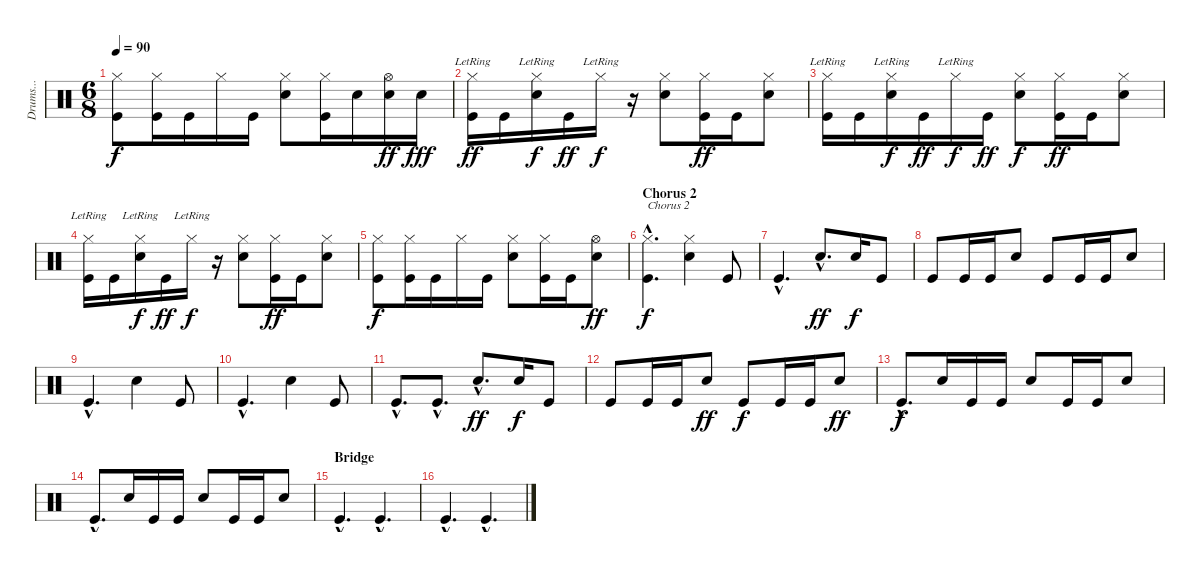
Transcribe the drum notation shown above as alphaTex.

\track ("Drums..." "Drums...") {instrument percussion}
\staff {score}
\articulation defaults
\ts (6 8)
\tempo 90
\clef neutral
\ks c
("Hi-Hat (closed)" "Kick (hit)").8{dy f} ("Hi-Hat (closed)" "Kick (hit)").16 "Kick (hit)".16 "Hi-Hat (closed)".16 "Kick (hit)".16 ("Hi-Hat (closed)" "Electric Snare (hit)").8 ("Hi-Hat (closed)" "Kick (hit)").16 "Electric Snare (hit)".16 ("Hi-Hat (open)" "Electric Snare (hit)").16{dy ff} "Electric Snare (hit)".16{dy fff} |
("Hi-Hat (closed)"{lr} "Kick (hit)").16{dy ff} "Kick (hit)".16 ("Hi-Hat (closed)"{lr} "Electric Snare (hit)").16{dy f} "Kick (hit)".16{dy ff} "Hi-Hat (closed)"{lr}.16{dy f} r.16 ("Hi-Hat (closed)" "Electric Snare (hit)").8 ("Hi-Hat (closed)" "Kick (hit)").16{dy ff} "Kick (hit)".16 ("Hi-Hat (closed)" "Electric Snare (hit)").8 |
("Hi-Hat (closed)"{lr} "Kick (hit)").16 "Kick (hit)".16 ("Hi-Hat (closed)"{lr} "Electric Snare (hit)").16{dy f} "Kick (hit)".16{dy ff} "Hi-Hat (closed)"{lr}.16{dy f} "Kick (hit)".16{dy ff} ("Hi-Hat (closed)" "Electric Snare (hit)").8{dy f} ("Hi-Hat (closed)" "Kick (hit)").16{dy ff} "Kick (hit)".16 ("Hi-Hat (closed)" "Electric Snare (hit)").8 |
("Hi-Hat (closed)"{lr} "Kick (hit)").16 "Kick (hit)".16 ("Hi-Hat (closed)"{lr} "Electric Snare (hit)").16{dy f} "Kick (hit)".16{dy ff} "Hi-Hat (closed)"{lr}.16{dy f} r.16 ("Hi-Hat (closed)" "Electric Snare (hit)").8 ("Hi-Hat (closed)" "Kick (hit)").16{dy ff} "Kick (hit)".16 ("Hi-Hat (closed)" "Electric Snare (hit)").8 |
("Hi-Hat (closed)" "Kick (hit)").8{dy f} ("Hi-Hat (closed)" "Kick (hit)").16 "Kick (hit)".16 "Hi-Hat (closed)".16 "Kick (hit)".16 ("Hi-Hat (closed)" "Electric Snare (hit)").8 ("Hi-Hat (closed)" "Kick (hit)").16 "Kick (hit)".16 ("Hi-Hat (open)" "Electric Snare (hit)").8{dy ff} |
\section ("" "Chorus 2")
("Hi-Hat (closed)"{hac} "Kick (hit)"{hac}).4{d txt "Chorus 2" dy f} ("Hi-Hat (closed)" "Electric Snare (hit)").4 "Kick (hit)".8 |
"Kick (hit)"{hac}.4{d} "Electric Snare (hit)"{hac}.8{d dy ff} "Electric Snare (hit)".16{dy f} "Kick (hit)".8 |
"Kick (hit)".8 "Kick (hit)".16 "Kick (hit)".16 "Electric Snare (hit)".8 "Kick (hit)".8 "Kick (hit)".16 "Kick (hit)".16 "Electric Snare (hit)".8 |
"Kick (hit)"{hac}.4{d} "Electric Snare (hit)".4 "Kick (hit)".8 |
"Kick (hit)"{hac}.4{d} "Electric Snare (hit)".4 "Kick (hit)".8 |
"Kick (hit)"{hac}.8{d} "Kick (hit)"{hac}.8{d} "Electric Snare (hit)"{hac}.8{d dy ff} "Electric Snare (hit)".16{dy f} "Kick (hit)".8 |
"Kick (hit)".8 "Kick (hit)".16 "Kick (hit)".16 "Electric Snare (hit)".8{dy ff} "Kick (hit)".8{dy f} "Kick (hit)".16 "Kick (hit)".16 "Electric Snare (hit)".8{dy ff} |
"Kick (hit)"{hac}.8{d dy f} "Electric Snare (hit)".16 "Kick (hit)".16 "Kick (hit)".16 "Electric Snare (hit)".8 "Kick (hit)".16 "Kick (hit)".16 "Electric Snare (hit)".8 |
"Kick (hit)"{hac}.8{d} "Electric Snare (hit)".16 "Kick (hit)".16 "Kick (hit)".16 "Electric Snare (hit)".8 "Kick (hit)".16 "Kick (hit)".16 "Electric Snare (hit)".8 |
\section ("" "Bridge")
"Kick (hit)"{hac}.4{d} "Kick (hit)"{hac}.4{d} |
"Kick (hit)"{hac}.4{d} "Kick (hit)"{hac}.4{d}
